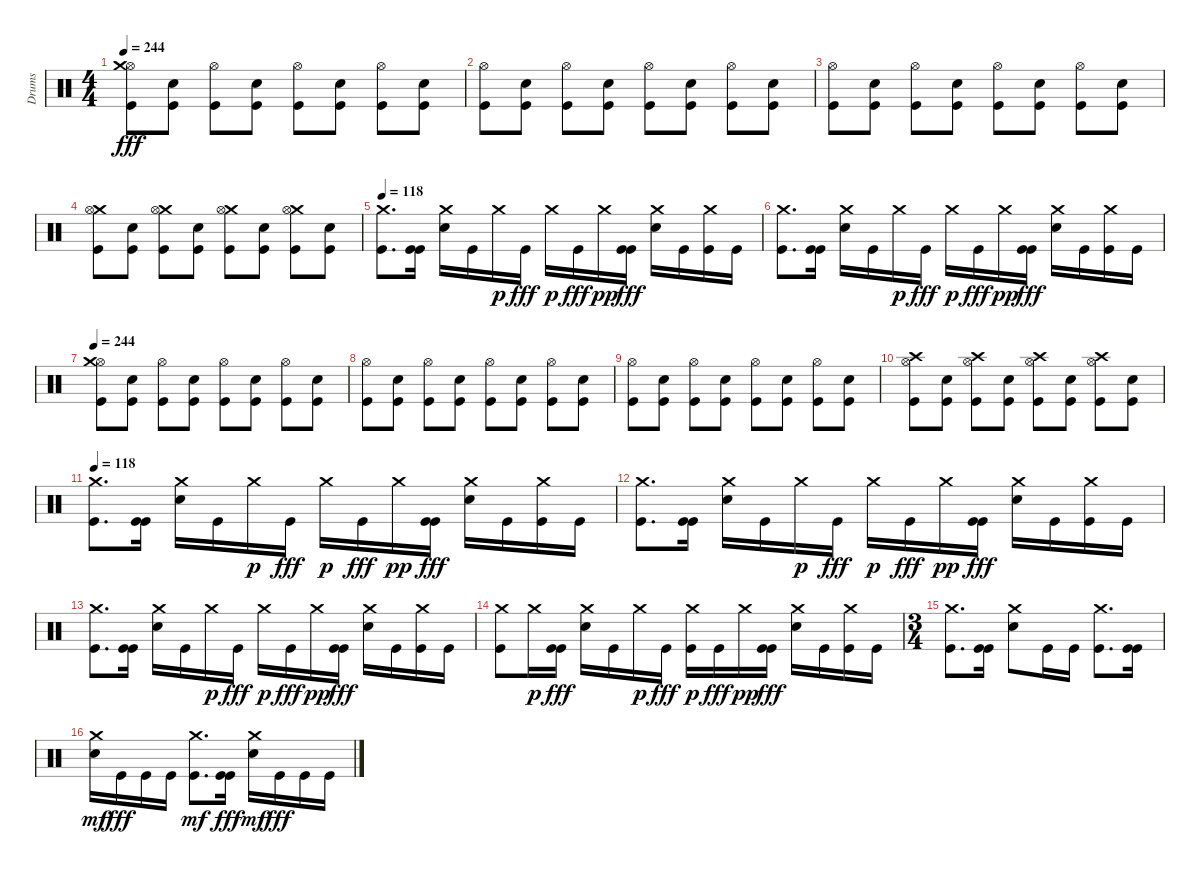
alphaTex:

\track ("Drums" "Drums") {instrument percussion}
\staff {score}
\articulation defaults
\ts (4 4)
\tempo 244
\clef neutral
\ks c
("Hi-Hat (open)" "Kick (hit)" "Crash medium (hit)").8{dy fff} ("Electric Snare (hit)" "Kick (hit)").8 ("Hi-Hat (open)" "Kick (hit)").8 ("Electric Snare (hit)" "Kick (hit)").8 ("Hi-Hat (open)" "Kick (hit)").8 ("Electric Snare (hit)" "Kick (hit)").8 ("Hi-Hat (open)" "Kick (hit)").8 ("Electric Snare (hit)" "Kick (hit)").8 |
("Hi-Hat (open)" "Kick (hit)").8 ("Electric Snare (hit)" "Kick (hit)").8 ("Hi-Hat (open)" "Kick (hit)").8 ("Electric Snare (hit)" "Kick (hit)").8 ("Hi-Hat (open)" "Kick (hit)").8 ("Electric Snare (hit)" "Kick (hit)").8 ("Hi-Hat (open)" "Kick (hit)").8 ("Electric Snare (hit)" "Kick (hit)").8 |
("Hi-Hat (open)" "Kick (hit)").8 ("Electric Snare (hit)" "Kick (hit)").8 ("Hi-Hat (open)" "Kick (hit)").8 ("Electric Snare (hit)" "Kick (hit)").8 ("Hi-Hat (open)" "Kick (hit)").8 ("Electric Snare (hit)" "Kick (hit)").8 ("Hi-Hat (open)" "Kick (hit)").8 ("Electric Snare (hit)" "Kick (hit)").8 |
("Crash medium (hit)" "Hi-Hat (open)" "Kick (hit)").8 ("Electric Snare (hit)" "Kick (hit)").8 ("Crash medium (hit)" "Hi-Hat (open)" "Kick (hit)").8 ("Electric Snare (hit)" "Kick (hit)").8 ("Crash medium (hit)" "Hi-Hat (open)" "Kick (hit)").8 ("Electric Snare (hit)" "Kick (hit)").8 ("Crash medium (hit)" "Hi-Hat (open)" "Kick (hit)").8 ("Electric Snare (hit)" "Kick (hit)").8 |
\tempo 118
("Crash medium (hit)" "Kick (hit)").8{d} ("Kick (hit)" "Kick (hit)").16 ("Crash medium (hit)" "Electric Snare (hit)").16 "Kick (hit)".16 "Crash medium (hit)".16{dy p} "Kick (hit)".16{dy fff} "Crash medium (hit)".16{dy p} "Kick (hit)".16{dy fff} "Crash medium (hit)".16{dy pp} ("Kick (hit)" "Kick (hit)").16{dy fff} ("Crash medium (hit)" "Electric Snare (hit)").16 "Kick (hit)".16 ("Crash medium (hit)" "Kick (hit)").16 "Kick (hit)".16 |
("Crash medium (hit)" "Kick (hit)").8{d} ("Kick (hit)" "Kick (hit)").16 ("Crash medium (hit)" "Electric Snare (hit)").16 "Kick (hit)".16 "Crash medium (hit)".16{dy p} "Kick (hit)".16{dy fff} "Crash medium (hit)".16{dy p} "Kick (hit)".16{dy fff} "Crash medium (hit)".16{dy pp} ("Kick (hit)" "Kick (hit)").16{dy fff} ("Crash medium (hit)" "Electric Snare (hit)").16 "Kick (hit)".16 ("Crash medium (hit)" "Kick (hit)").16 "Kick (hit)".16 |
\tempo 244
("Hi-Hat (open)" "Kick (hit)" "Crash medium (hit)").8 ("Electric Snare (hit)" "Kick (hit)").8 ("Hi-Hat (open)" "Kick (hit)").8 ("Electric Snare (hit)" "Kick (hit)").8 ("Hi-Hat (open)" "Kick (hit)").8 ("Electric Snare (hit)" "Kick (hit)").8 ("Hi-Hat (open)" "Kick (hit)").8 ("Electric Snare (hit)" "Kick (hit)").8 |
("Hi-Hat (open)" "Kick (hit)").8 ("Electric Snare (hit)" "Kick (hit)").8 ("Hi-Hat (open)" "Kick (hit)").8 ("Electric Snare (hit)" "Kick (hit)").8 ("Hi-Hat (open)" "Kick (hit)").8 ("Electric Snare (hit)" "Kick (hit)").8 ("Hi-Hat (open)" "Kick (hit)").8 ("Electric Snare (hit)" "Kick (hit)").8 |
("Hi-Hat (open)" "Kick (hit)").8 ("Electric Snare (hit)" "Kick (hit)").8 ("Hi-Hat (open)" "Kick (hit)").8 ("Electric Snare (hit)" "Kick (hit)").8 ("Hi-Hat (open)" "Kick (hit)").8 ("Electric Snare (hit)" "Kick (hit)").8 ("Hi-Hat (open)" "Kick (hit)").8 ("Electric Snare (hit)" "Kick (hit)").8 |
("Crash high (hit)" "Hi-Hat (open)" "Kick (hit)").8 ("Electric Snare (hit)" "Kick (hit)").8 ("Crash high (hit)" "Hi-Hat (open)" "Kick (hit)").8 ("Electric Snare (hit)" "Kick (hit)").8 ("Crash high (hit)" "Hi-Hat (open)" "Kick (hit)").8 ("Electric Snare (hit)" "Kick (hit)").8 ("Crash high (hit)" "Hi-Hat (open)" "Kick (hit)").8 ("Electric Snare (hit)" "Kick (hit)").8 |
\tempo 118
("Crash medium (hit)" "Kick (hit)").8{d} ("Kick (hit)" "Kick (hit)").16 ("Crash medium (hit)" "Electric Snare (hit)").16 "Kick (hit)".16 "Crash medium (hit)".16{dy p} "Kick (hit)".16{dy fff} "Crash medium (hit)".16{dy p} "Kick (hit)".16{dy fff} "Crash medium (hit)".16{dy pp} ("Kick (hit)" "Kick (hit)").16{dy fff} ("Crash medium (hit)" "Electric Snare (hit)").16 "Kick (hit)".16 ("Crash medium (hit)" "Kick (hit)").16 "Kick (hit)".16 |
("Crash medium (hit)" "Kick (hit)").8{d} ("Kick (hit)" "Kick (hit)").16 ("Crash medium (hit)" "Electric Snare (hit)").16 "Kick (hit)".16 "Crash medium (hit)".16{dy p} "Kick (hit)".16{dy fff} "Crash medium (hit)".16{dy p} "Kick (hit)".16{dy fff} "Crash medium (hit)".16{dy pp} ("Kick (hit)" "Kick (hit)").16{dy fff} ("Crash medium (hit)" "Electric Snare (hit)").16 "Kick (hit)".16 ("Crash medium (hit)" "Kick (hit)").16 "Kick (hit)".16 |
("Crash medium (hit)" "Kick (hit)").8{d} ("Kick (hit)" "Kick (hit)").16 ("Crash medium (hit)" "Electric Snare (hit)").16 "Kick (hit)".16 "Crash medium (hit)".16{dy p} "Kick (hit)".16{dy fff} "Crash medium (hit)".16{dy p} "Kick (hit)".16{dy fff} "Crash medium (hit)".16{dy pp} ("Kick (hit)" "Kick (hit)").16{dy fff} ("Crash medium (hit)" "Electric Snare (hit)").16 "Kick (hit)".16 ("Crash medium (hit)" "Kick (hit)").16 "Kick (hit)".16 |
("Crash medium (hit)" "Kick (hit)").8 "Crash medium (hit)".16{dy p} ("Kick (hit)" "Kick (hit)").16{dy fff} ("Crash medium (hit)" "Electric Snare (hit)").16 "Kick (hit)".16 "Crash medium (hit)".16{dy p} "Kick (hit)".16{dy fff} ("Kick (hit)" "Crash medium (hit)").16{dy p} "Kick (hit)".16{dy fff} "Crash medium (hit)".16{dy pp} ("Kick (hit)" "Kick (hit)").16{dy fff} ("Crash medium (hit)" "Electric Snare (hit)").16 "Kick (hit)".16 ("Crash medium (hit)" "Kick (hit)").16 "Kick (hit)".16 |
\ts (3 4)
("Crash medium (hit)" "Kick (hit)").8{d} ("Kick (hit)" "Kick (hit)").16 ("Crash medium (hit)" "Electric Snare (hit)").8 "Kick (hit)".16 "Kick (hit)".16 ("Crash medium (hit)" "Kick (hit)").8{d} ("Kick (hit)" "Kick (hit)").16 |
("Electric Snare (hit)" "Crash medium (hit)").16{dy mf} "Kick (hit)".16{dy fff} "Kick (hit)".16 "Kick (hit)".16 ("Kick (hit)" "Crash medium (hit)").8{d dy mf} ("Kick (hit)" "Kick (hit)").16{dy fff} ("Electric Snare (hit)" "Crash medium (hit)").16{dy mf} "Kick (hit)".16{dy fff} "Kick (hit)".16 "Kick (hit)".16
